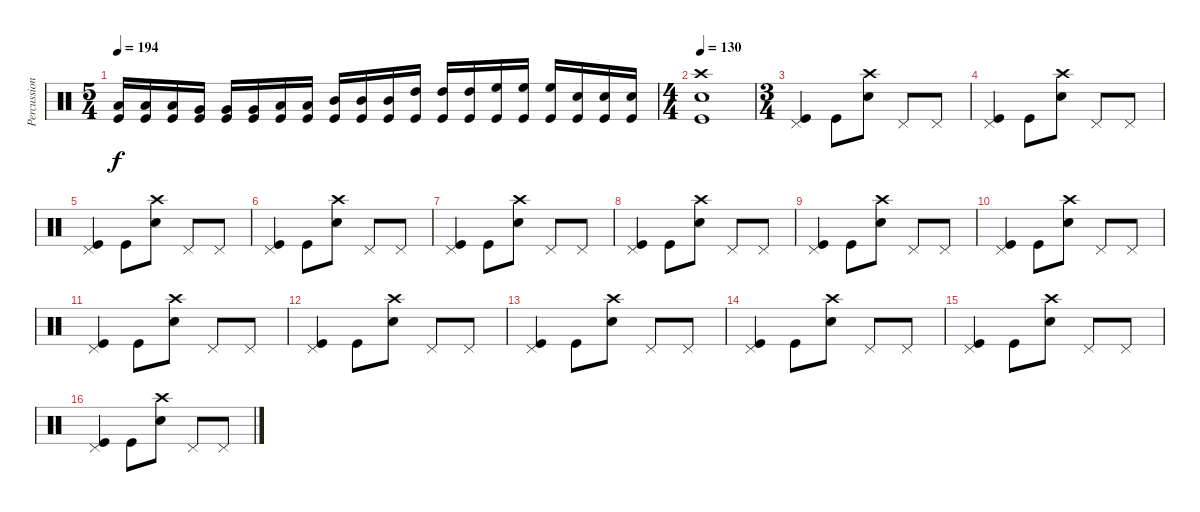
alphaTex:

\track ("Percussion" "Percussion") {instrument percussion}
\staff {score}
\articulation defaults
\ts (5 4)
\tempo 194
\clef neutral
\ks c
("Kick (hit)" "Low Floor Tom (hit)").16{dy f} ("Kick (hit)" "Low Floor Tom (hit)").16 ("Kick (hit)" "Low Floor Tom (hit)").16 ("Kick (hit)" "Very Low Tom (hit)").16 ("Kick (hit)" "Very Low Tom (hit)").16 ("Kick (hit)" "Very Low Tom (hit)").16 ("Kick (hit)" "Low Tom (hit)").16 ("Kick (hit)" "Low Tom (hit)").16 ("Kick (hit)" "Mid Tom (hit)").16 ("Kick (hit)" "Mid Tom (hit)").16 ("Kick (hit)" "Mid Tom (hit)").16 ("Kick (hit)" "High Tom (hit)").16 ("Kick (hit)" "High Tom (hit)").16 ("Kick (hit)" "High Tom (hit)").16 ("Kick (hit)" "High Floor Tom (hit)").16 ("Kick (hit)" "High Floor Tom (hit)").16 ("Kick (hit)" "High Floor Tom (hit)").16 ("Kick (hit)" "Snare (hit) 2").16 ("Kick (hit)" "Snare (hit) 2").16 ("Kick (hit)" "Snare (hit) 2").16 |
\ts (4 4)
\tempo 130
("Kick (hit)" "Snare (hit) 2" "Crash high (hit)").1 |
\ts (3 4)
("Pedal Hi-Hat (hit)" "Kick (hit)").4 "Kick (hit)".8 ("Crash high (hit)" "Snare (hit) 2").8 "Pedal Hi-Hat (hit)".8 "Pedal Hi-Hat (hit)".8 |
("Pedal Hi-Hat (hit)" "Kick (hit)").4 "Kick (hit)".8 ("Crash high (hit)" "Snare (hit) 2").8 "Pedal Hi-Hat (hit)".8 "Pedal Hi-Hat (hit)".8 |
("Pedal Hi-Hat (hit)" "Kick (hit)").4 "Kick (hit)".8 ("Crash high (hit)" "Snare (hit) 2").8 "Pedal Hi-Hat (hit)".8 "Pedal Hi-Hat (hit)".8 |
("Pedal Hi-Hat (hit)" "Kick (hit)").4 "Kick (hit)".8 ("Crash high (hit)" "Snare (hit) 2").8 "Pedal Hi-Hat (hit)".8 "Pedal Hi-Hat (hit)".8 |
("Pedal Hi-Hat (hit)" "Kick (hit)").4 "Kick (hit)".8 ("Crash high (hit)" "Snare (hit) 2").8 "Pedal Hi-Hat (hit)".8 "Pedal Hi-Hat (hit)".8 |
("Pedal Hi-Hat (hit)" "Kick (hit)").4 "Kick (hit)".8 ("Crash high (hit)" "Snare (hit) 2").8 "Pedal Hi-Hat (hit)".8 "Pedal Hi-Hat (hit)".8 |
("Pedal Hi-Hat (hit)" "Kick (hit)").4 "Kick (hit)".8 ("Crash high (hit)" "Snare (hit) 2").8 "Pedal Hi-Hat (hit)".8 "Pedal Hi-Hat (hit)".8 |
("Pedal Hi-Hat (hit)" "Kick (hit)").4 "Kick (hit)".8 ("Crash high (hit)" "Snare (hit) 2").8 "Pedal Hi-Hat (hit)".8 "Pedal Hi-Hat (hit)".8 |
("Pedal Hi-Hat (hit)" "Kick (hit)").4 "Kick (hit)".8 ("Crash high (hit)" "Snare (hit) 2").8 "Pedal Hi-Hat (hit)".8 "Pedal Hi-Hat (hit)".8 |
("Pedal Hi-Hat (hit)" "Kick (hit)").4 "Kick (hit)".8 ("Crash high (hit)" "Snare (hit) 2").8 "Pedal Hi-Hat (hit)".8 "Pedal Hi-Hat (hit)".8 |
("Pedal Hi-Hat (hit)" "Kick (hit)").4 "Kick (hit)".8 ("Crash high (hit)" "Snare (hit) 2").8 "Pedal Hi-Hat (hit)".8 "Pedal Hi-Hat (hit)".8 |
("Pedal Hi-Hat (hit)" "Kick (hit)").4 "Kick (hit)".8 ("Crash high (hit)" "Snare (hit) 2").8 "Pedal Hi-Hat (hit)".8 "Pedal Hi-Hat (hit)".8 |
("Pedal Hi-Hat (hit)" "Kick (hit)").4 "Kick (hit)".8 ("Crash high (hit)" "Snare (hit) 2").8 "Pedal Hi-Hat (hit)".8 "Pedal Hi-Hat (hit)".8 |
("Pedal Hi-Hat (hit)" "Kick (hit)").4 "Kick (hit)".8 ("Crash high (hit)" "Snare (hit) 2").8 "Pedal Hi-Hat (hit)".8 "Pedal Hi-Hat (hit)".8
